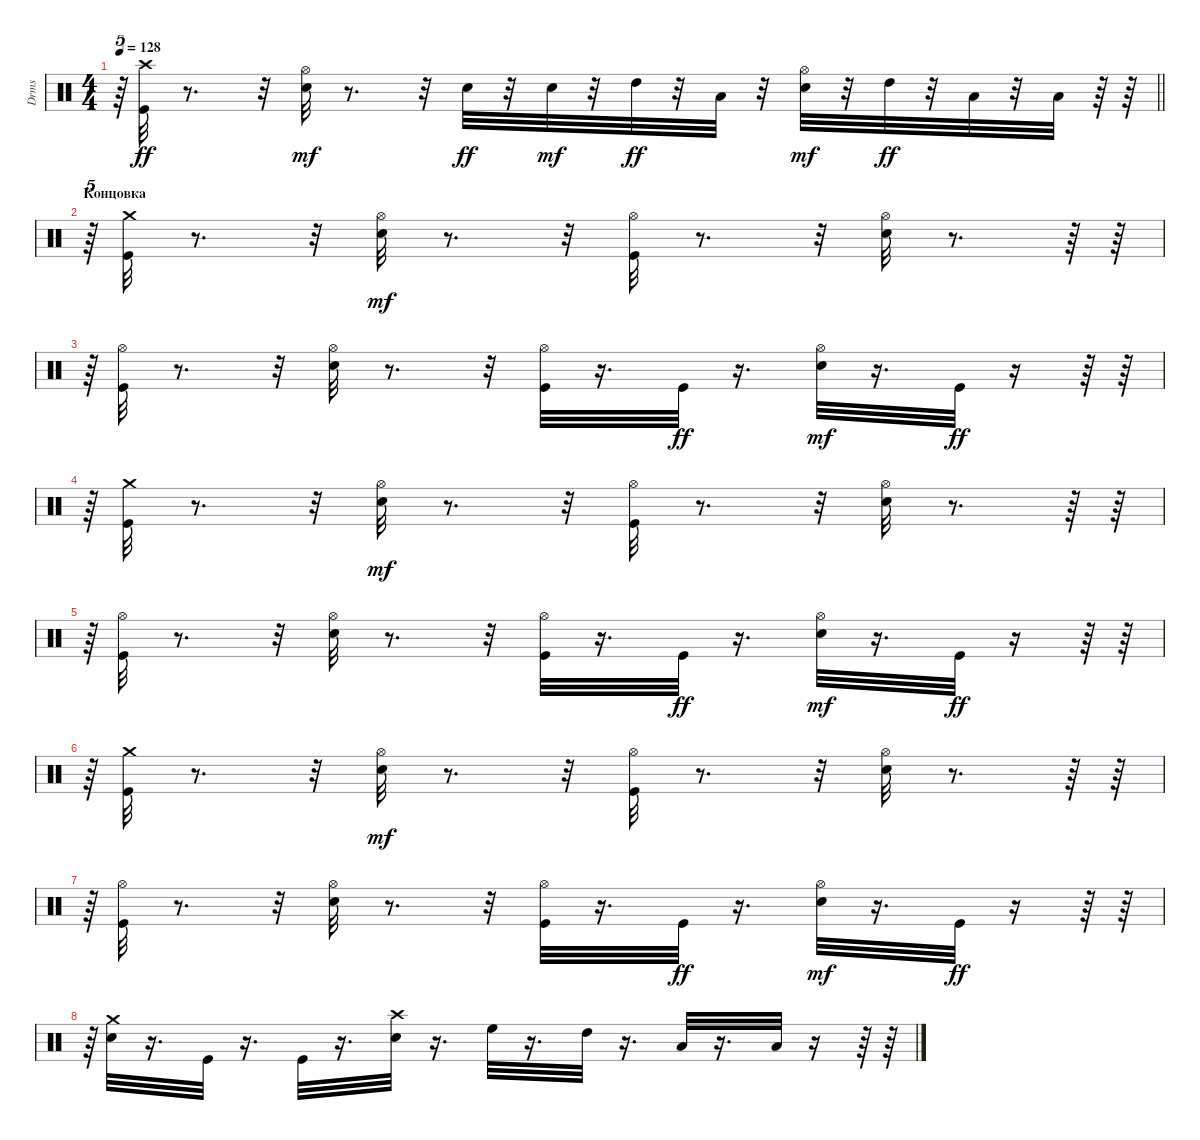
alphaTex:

\track ("Drms" "Drms") {instrument percussion}
\staff {score}
\articulation defaults
\ts (4 4)
\tempo 128
\clef neutral
\barLineRight lightlight
\ks c
r.64{tu (5 4) dy ff} ("Kick (hit)" "Crash high (hit)").32 r.8{d} r.32 ("Snare (hit) 2" "Hi-Hat (open)").32{dy mf} r.8{d} r.32 "Snare (hit) 2".32{dy ff} r.32 "Snare (hit) 2".32{dy mf} r.32 "High Tom (hit)".32{dy ff} r.32 "Low Tom (hit)".32 r.32 ("Snare (hit) 2" "Hi-Hat (open)").32{dy mf} r.32 "High Tom (hit)".32{dy ff} r.32 "Low Tom (hit)".32 r.32 "Low Floor Tom (hit)".32 r.64 r.64 |
\section ("" "Концовка")
r.64{tu (5 4)} ("Kick (hit)" "Crash medium (hit)").32 r.8{d} r.32 ("Snare (hit) 2" "Hi-Hat (open)").32{dy mf} r.8{d} r.32 ("Kick (hit)" "Hi-Hat (open)").32 r.8{d} r.32 ("Snare (hit) 2" "Hi-Hat (open)").32 r.8{d} r.64 r.64 |
r.64{tu (5 4)} ("Kick (hit)" "Hi-Hat (open)").32 r.8{d} r.32 ("Snare (hit) 2" "Hi-Hat (open)").32 r.8{d} r.32 ("Kick (hit)" "Hi-Hat (open)").32 r.16{d} "Kick (hit)".32{dy ff} r.16{d} ("Snare (hit) 2" "Hi-Hat (open)").32{dy mf} r.16{d} "Kick (hit)".32{dy ff} r.16 r.64 r.64 |
r.64{tu (5 4)} ("Kick (hit)" "Crash medium (hit)").32 r.8{d} r.32 ("Snare (hit) 2" "Hi-Hat (open)").32{dy mf} r.8{d} r.32 ("Kick (hit)" "Hi-Hat (open)").32 r.8{d} r.32 ("Snare (hit) 2" "Hi-Hat (open)").32 r.8{d} r.64 r.64 |
r.64{tu (5 4)} ("Kick (hit)" "Hi-Hat (open)").32 r.8{d} r.32 ("Snare (hit) 2" "Hi-Hat (open)").32 r.8{d} r.32 ("Kick (hit)" "Hi-Hat (open)").32 r.16{d} "Kick (hit)".32{dy ff} r.16{d} ("Snare (hit) 2" "Hi-Hat (open)").32{dy mf} r.16{d} "Kick (hit)".32{dy ff} r.16 r.64 r.64 |
r.64{tu (5 4)} ("Kick (hit)" "Crash medium (hit)").32 r.8{d} r.32 ("Snare (hit) 2" "Hi-Hat (open)").32{dy mf} r.8{d} r.32 ("Kick (hit)" "Hi-Hat (open)").32 r.8{d} r.32 ("Snare (hit) 2" "Hi-Hat (open)").32 r.8{d} r.64 r.64 |
r.64{tu (5 4)} ("Kick (hit)" "Hi-Hat (open)").32 r.8{d} r.32 ("Snare (hit) 2" "Hi-Hat (open)").32 r.8{d} r.32 ("Kick (hit)" "Hi-Hat (open)").32 r.16{d} "Kick (hit)".32{dy ff} r.16{d} ("Snare (hit) 2" "Hi-Hat (open)").32{dy mf} r.16{d} "Kick (hit)".32{dy ff} r.16 r.64 r.64 |
r.64{tu (5 4)} ("Snare (hit) 2" "Crash medium (hit)").32 r.16{d} "Kick (hit)".32 r.16{d} "Kick (hit)".32 r.16{d} ("Snare (hit) 2" "Crash high (hit)").32 r.16{d} "High Floor Tom (hit)".32 r.16{d} "High Tom (hit)".32 r.16{d} "Low Tom (hit)".32 r.16{d} "Low Floor Tom (hit)".32 r.16 r.64 r.64
